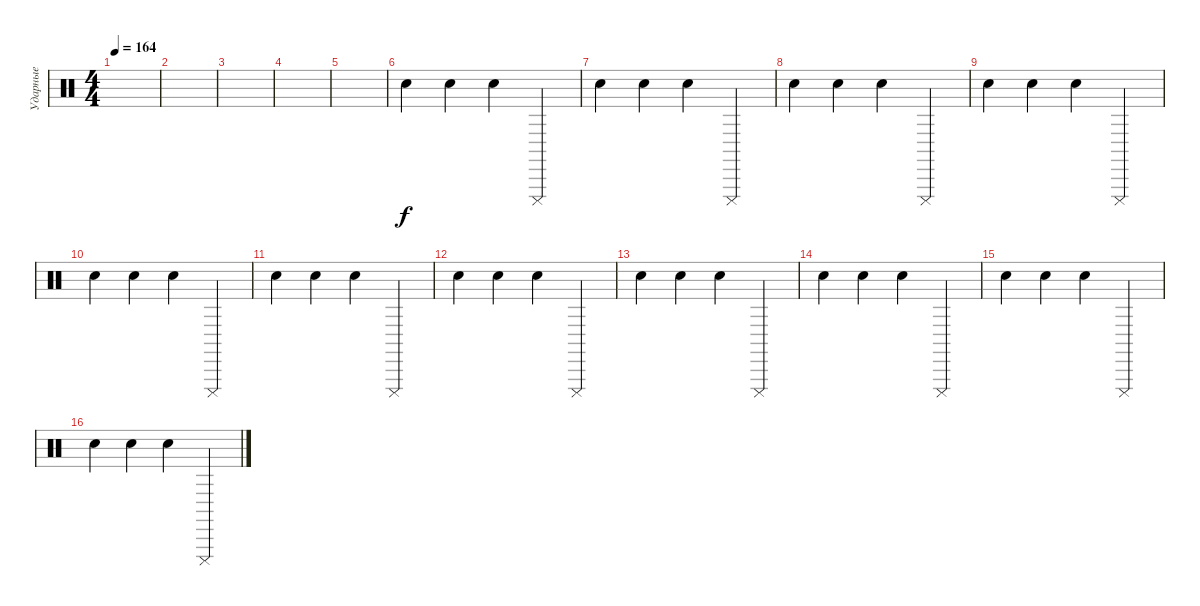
\track ("Ударные" "Ударные") {instrument percussion}
\staff {score}
\articulation defaults
\ts (4 4)
\tempo 164
\clef neutral
\ks c
|
|
|
|
|
"Hand Clap (hit)".4 "Electric Snare (hit)".4 "Snare (hit) 2".4 "Cuica (mute)".4 |
"Hand Clap (hit)".4 "Electric Snare (hit)".4 "Snare (hit) 2".4 "Cuica (mute)".4 |
"Hand Clap (hit)".4 "Electric Snare (hit)".4 "Snare (hit) 2".4 "Cuica (mute)".4 |
"Hand Clap (hit)".4 "Electric Snare (hit)".4 "Snare (hit) 2".4 "Cuica (mute)".4 |
"Hand Clap (hit)".4 "Electric Snare (hit)".4 "Snare (hit) 2".4 "Cuica (mute)".4 |
"Hand Clap (hit)".4 "Electric Snare (hit)".4 "Snare (hit) 2".4 "Cuica (mute)".4 |
"Hand Clap (hit)".4 "Electric Snare (hit)".4 "Snare (hit) 2".4 "Cuica (mute)".4 |
"Hand Clap (hit)".4 "Electric Snare (hit)".4 "Snare (hit) 2".4 "Cuica (mute)".4 |
"Hand Clap (hit)".4 "Electric Snare (hit)".4 "Snare (hit) 2".4 "Cuica (mute)".4 |
"Hand Clap (hit)".4 "Electric Snare (hit)".4 "Snare (hit) 2".4 "Cuica (mute)".4 |
"Hand Clap (hit)".4 "Electric Snare (hit)".4 "Snare (hit) 2".4 "Cuica (mute)".4
